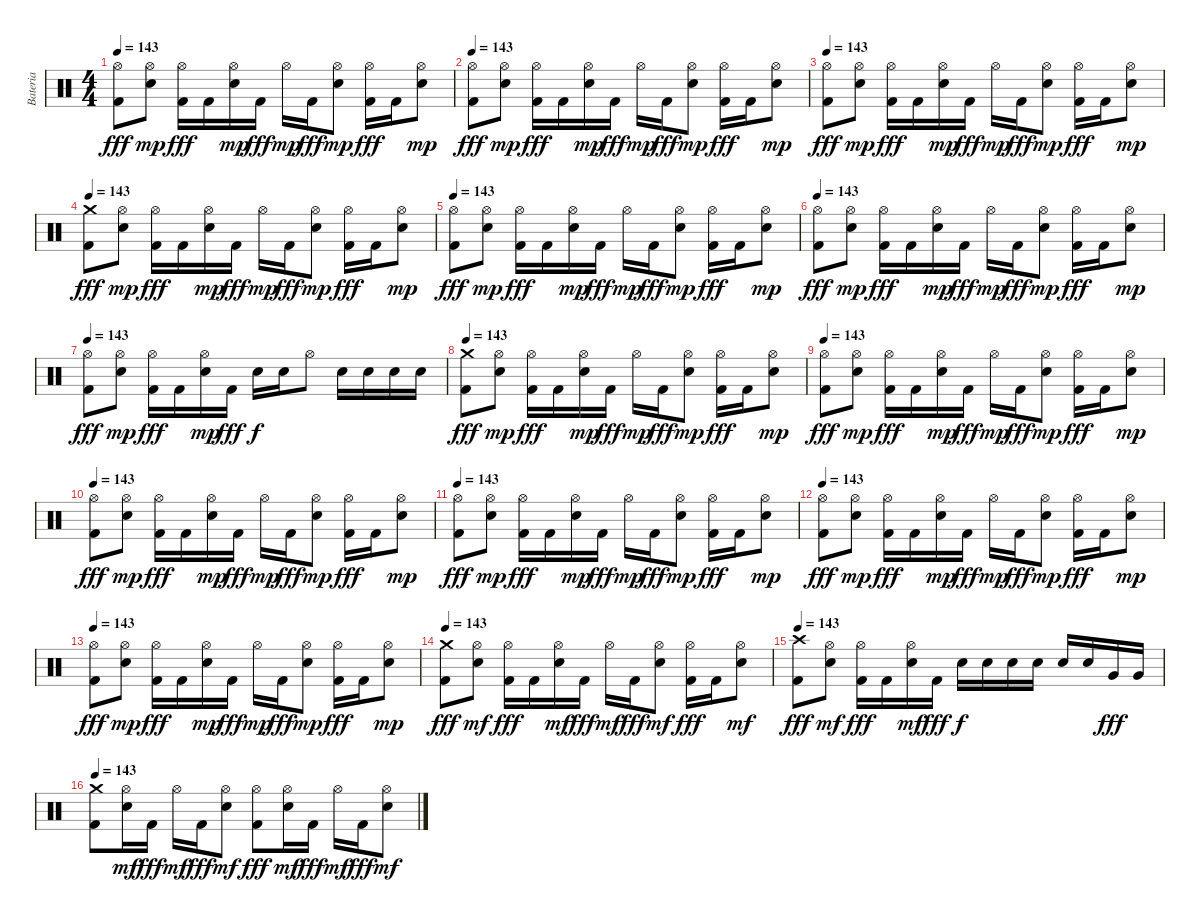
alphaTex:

\track ("Bateria" "Bateria") {instrument percussion}
\staff {score}
\articulation defaults
\ts (4 4)
\tempo 143
\clef neutral
\ks c
("Hi-Hat (open)" "Kick (hit) 2").8{dy fff} ("Hi-Hat (open)" "Electric Snare (hit)").8{dy mp} ("Hi-Hat (open)" "Kick (hit) 2").16{dy fff} "Kick (hit) 2".16 ("Hi-Hat (open)" "Electric Snare (hit)").16{dy mp} "Kick (hit) 2".16{dy fff} "Hi-Hat (open)".16{dy mp} "Kick (hit) 2".16{dy fff} ("Hi-Hat (open)" "Electric Snare (hit)").8{dy mp} ("Hi-Hat (open)" "Kick (hit) 2").16{dy fff} "Kick (hit) 2".16 ("Hi-Hat (open)" "Electric Snare (hit)").8{dy mp} |
\tempo 143
("Hi-Hat (open)" "Kick (hit) 2").8{dy fff} ("Hi-Hat (open)" "Electric Snare (hit)").8{dy mp} ("Hi-Hat (open)" "Kick (hit) 2").16{dy fff} "Kick (hit) 2".16 ("Hi-Hat (open)" "Electric Snare (hit)").16{dy mp} "Kick (hit) 2".16{dy fff} "Hi-Hat (open)".16{dy mp} "Kick (hit) 2".16{dy fff} ("Hi-Hat (open)" "Electric Snare (hit)").8{dy mp} ("Hi-Hat (open)" "Kick (hit) 2").16{dy fff} "Kick (hit) 2".16 ("Hi-Hat (open)" "Electric Snare (hit)").8{dy mp} |
\tempo 143
("Hi-Hat (open)" "Kick (hit) 2").8{dy fff} ("Hi-Hat (open)" "Electric Snare (hit)").8{dy mp} ("Hi-Hat (open)" "Kick (hit) 2").16{dy fff} "Kick (hit) 2".16 ("Hi-Hat (open)" "Electric Snare (hit)").16{dy mp} "Kick (hit) 2".16{dy fff} "Hi-Hat (open)".16{dy mp} "Kick (hit) 2".16{dy fff} ("Hi-Hat (open)" "Electric Snare (hit)").8{dy mp} ("Hi-Hat (open)" "Kick (hit) 2").16{dy fff} "Kick (hit) 2".16 ("Hi-Hat (open)" "Electric Snare (hit)").8{dy mp} |
\tempo 143
("Crash medium (hit)" "Kick (hit) 2").8{dy fff} ("Hi-Hat (open)" "Electric Snare (hit)").8{dy mp} ("Hi-Hat (open)" "Kick (hit) 2").16{dy fff} "Kick (hit) 2".16 ("Hi-Hat (open)" "Electric Snare (hit)").16{dy mp} "Kick (hit) 2".16{dy fff} "Hi-Hat (open)".16{dy mp} "Kick (hit) 2".16{dy fff} ("Hi-Hat (open)" "Electric Snare (hit)").8{dy mp} ("Hi-Hat (open)" "Kick (hit) 2").16{dy fff} "Kick (hit) 2".16 ("Hi-Hat (open)" "Electric Snare (hit)").8{dy mp} |
\tempo 143
("Hi-Hat (open)" "Kick (hit) 2").8{dy fff} ("Hi-Hat (open)" "Electric Snare (hit)").8{dy mp} ("Hi-Hat (open)" "Kick (hit) 2").16{dy fff} "Kick (hit) 2".16 ("Hi-Hat (open)" "Electric Snare (hit)").16{dy mp} "Kick (hit) 2".16{dy fff} "Hi-Hat (open)".16{dy mp} "Kick (hit) 2".16{dy fff} ("Hi-Hat (open)" "Electric Snare (hit)").8{dy mp} ("Hi-Hat (open)" "Kick (hit) 2").16{dy fff} "Kick (hit) 2".16 ("Hi-Hat (open)" "Electric Snare (hit)").8{dy mp} |
\tempo 143
("Hi-Hat (open)" "Kick (hit) 2").8{dy fff} ("Hi-Hat (open)" "Electric Snare (hit)").8{dy mp} ("Hi-Hat (open)" "Kick (hit) 2").16{dy fff} "Kick (hit) 2".16 ("Hi-Hat (open)" "Electric Snare (hit)").16{dy mp} "Kick (hit) 2".16{dy fff} "Hi-Hat (open)".16{dy mp} "Kick (hit) 2".16{dy fff} ("Hi-Hat (open)" "Electric Snare (hit)").8{dy mp} ("Hi-Hat (open)" "Kick (hit) 2").16{dy fff} "Kick (hit) 2".16 ("Hi-Hat (open)" "Electric Snare (hit)").8{dy mp} |
\tempo 143
("Hi-Hat (open)" "Kick (hit) 2").8{dy fff} ("Hi-Hat (open)" "Electric Snare (hit)").8{dy mp} ("Hi-Hat (open)" "Kick (hit) 2").16{dy fff} "Kick (hit) 2".16 ("Hi-Hat (open)" "Electric Snare (hit)").16{dy mp} "Kick (hit) 2".16{dy fff} "Electric Snare (hit)".16{dy f} "Electric Snare (hit)".16 "Hi-Hat (open)".8 "Electric Snare (hit)".16 "Electric Snare (hit)".16 "Electric Snare (hit)".16 "Electric Snare (hit)".16 |
\tempo 143
("Crash medium (hit)" "Kick (hit) 2").8{dy fff} ("Hi-Hat (open)" "Electric Snare (hit)").8{dy mp} ("Hi-Hat (open)" "Kick (hit) 2").16{dy fff} "Kick (hit) 2".16 ("Hi-Hat (open)" "Electric Snare (hit)").16{dy mp} "Kick (hit) 2".16{dy fff} "Hi-Hat (open)".16{dy mp} "Kick (hit) 2".16{dy fff} ("Hi-Hat (open)" "Electric Snare (hit)").8{dy mp} ("Hi-Hat (open)" "Kick (hit) 2").16{dy fff} "Kick (hit) 2".16 ("Hi-Hat (open)" "Electric Snare (hit)").8{dy mp} |
\tempo 143
("Hi-Hat (open)" "Kick (hit) 2").8{dy fff} ("Hi-Hat (open)" "Electric Snare (hit)").8{dy mp} ("Hi-Hat (open)" "Kick (hit) 2").16{dy fff} "Kick (hit) 2".16 ("Hi-Hat (open)" "Electric Snare (hit)").16{dy mp} "Kick (hit) 2".16{dy fff} "Hi-Hat (open)".16{dy mp} "Kick (hit) 2".16{dy fff} ("Hi-Hat (open)" "Electric Snare (hit)").8{dy mp} ("Hi-Hat (open)" "Kick (hit) 2").16{dy fff} "Kick (hit) 2".16 ("Hi-Hat (open)" "Electric Snare (hit)").8{dy mp} |
\tempo 143
("Hi-Hat (open)" "Kick (hit) 2").8{dy fff} ("Hi-Hat (open)" "Electric Snare (hit)").8{dy mp} ("Hi-Hat (open)" "Kick (hit) 2").16{dy fff} "Kick (hit) 2".16 ("Hi-Hat (open)" "Electric Snare (hit)").16{dy mp} "Kick (hit) 2".16{dy fff} "Hi-Hat (open)".16{dy mp} "Kick (hit) 2".16{dy fff} ("Hi-Hat (open)" "Electric Snare (hit)").8{dy mp} ("Hi-Hat (open)" "Kick (hit) 2").16{dy fff} "Kick (hit) 2".16 ("Hi-Hat (open)" "Electric Snare (hit)").8{dy mp} |
\tempo 143
("Hi-Hat (open)" "Kick (hit) 2").8{dy fff} ("Hi-Hat (open)" "Electric Snare (hit)").8{dy mp} ("Hi-Hat (open)" "Kick (hit) 2").16{dy fff} "Kick (hit) 2".16 ("Hi-Hat (open)" "Electric Snare (hit)").16{dy mp} "Kick (hit) 2".16{dy fff} "Hi-Hat (open)".16{dy mp} "Kick (hit) 2".16{dy fff} ("Hi-Hat (open)" "Electric Snare (hit)").8{dy mp} ("Hi-Hat (open)" "Kick (hit) 2").16{dy fff} "Kick (hit) 2".16 ("Hi-Hat (open)" "Electric Snare (hit)").8{dy mp} |
\tempo 143
("Hi-Hat (open)" "Kick (hit) 2").8{dy fff} ("Hi-Hat (open)" "Electric Snare (hit)").8{dy mp} ("Hi-Hat (open)" "Kick (hit) 2").16{dy fff} "Kick (hit) 2".16 ("Hi-Hat (open)" "Electric Snare (hit)").16{dy mp} "Kick (hit) 2".16{dy fff} "Hi-Hat (open)".16{dy mp} "Kick (hit) 2".16{dy fff} ("Hi-Hat (open)" "Electric Snare (hit)").8{dy mp} ("Hi-Hat (open)" "Kick (hit) 2").16{dy fff} "Kick (hit) 2".16 ("Hi-Hat (open)" "Electric Snare (hit)").8{dy mp} |
\tempo 143
("Hi-Hat (open)" "Kick (hit) 2").8{dy fff} ("Hi-Hat (open)" "Electric Snare (hit)").8{dy mp} ("Hi-Hat (open)" "Kick (hit) 2").16{dy fff} "Kick (hit) 2".16 ("Hi-Hat (open)" "Electric Snare (hit)").16{dy mp} "Kick (hit) 2".16{dy fff} "Hi-Hat (open)".16{dy mp} "Kick (hit) 2".16{dy fff} ("Hi-Hat (open)" "Electric Snare (hit)").8{dy mp} ("Hi-Hat (open)" "Kick (hit) 2").16{dy fff} "Kick (hit) 2".16 ("Hi-Hat (open)" "Electric Snare (hit)").8{dy mp} |
\tempo 143
("Crash medium (hit)" "Kick (hit) 2").8{dy fff} ("Hi-Hat (open)" "Electric Snare (hit)").8{dy mf} ("Hi-Hat (open)" "Kick (hit) 2").16{dy fff} "Kick (hit) 2".16 ("Hi-Hat (open)" "Electric Snare (hit)").16{dy mf} "Kick (hit) 2".16{dy fff} "Hi-Hat (open)".16{dy mf} "Kick (hit) 2".16{dy fff} ("Hi-Hat (open)" "Electric Snare (hit)").8{dy mf} ("Hi-Hat (open)" "Kick (hit) 2").16{dy fff} "Kick (hit) 2".16 ("Hi-Hat (open)" "Electric Snare (hit)").8{dy mf} |
\tempo 143
("Crash high (hit)" "Kick (hit) 2").8{dy fff} ("Hi-Hat (open)" "Electric Snare (hit)").8{dy mf} ("Hi-Hat (open)" "Kick (hit) 2").16{dy fff} "Kick (hit) 2".16 ("Hi-Hat (open)" "Electric Snare (hit)").16{dy mf} "Kick (hit) 2".16{dy fff} "Electric Snare (hit)".16{dy f} "Electric Snare (hit)".16 "Electric Snare (hit)".16 "Electric Snare (hit)".16 "Electric Snare (hit)".16 "Electric Snare (hit)".16 "Very Low Tom (hit)".16{dy fff} "Very Low Tom (hit)".16 |
\tempo 143
("Crash medium (hit)" "Kick (hit) 2").8 ("Hi-Hat (open)" "Electric Snare (hit)").16{dy mf} "Kick (hit) 2".16{dy fff} "Hi-Hat (open)".16{dy mf} "Kick (hit) 2".16{dy fff} ("Hi-Hat (open)" "Electric Snare (hit)").8{dy mf} ("Hi-Hat (open)" "Kick (hit) 2").8{dy fff} ("Hi-Hat (open)" "Electric Snare (hit)").16{dy mf} "Kick (hit) 2".16{dy fff} "Hi-Hat (open)".16{dy mf} "Kick (hit) 2".16{dy fff} ("Hi-Hat (open)" "Electric Snare (hit)").8{dy mf}
